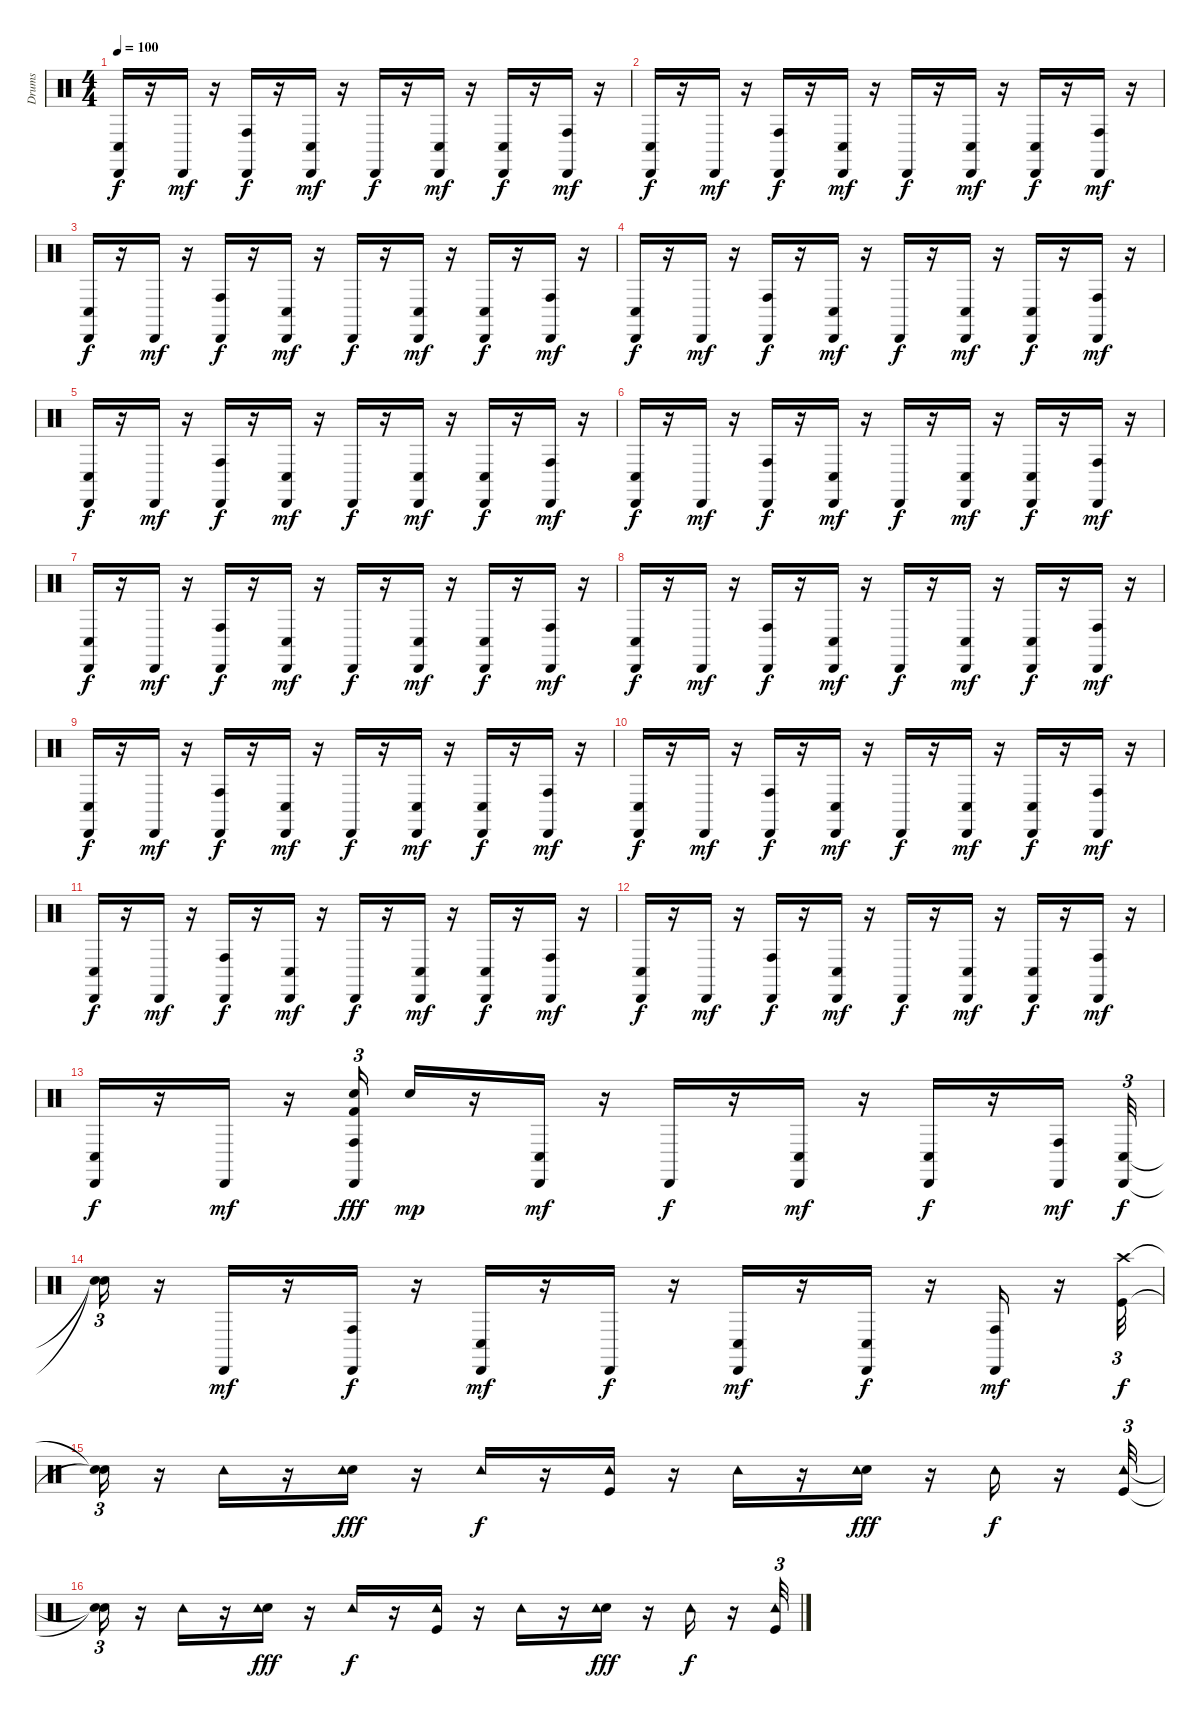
\track ("Drums" "Drums") {instrument percussion}
\staff {score}
\articulation defaults
\ts (4 4)
\tempo 100
\clef neutral
\ks c
("Conga low (hit)" "Cabasa (hit)").16{dy f} r.16 "Cabasa (hit)".16{dy mf} r.16 ("Conga high (hit)" "Cabasa (hit)").16{dy f} r.16 ("Conga low (hit)" "Cabasa (hit)").16{dy mf} r.16 "Cabasa (hit)".16{dy f} r.16 ("Conga low (hit)" "Cabasa (hit)").16{dy mf} r.16 ("Conga low (hit)" "Cabasa (hit)").16{dy f} r.16 ("Conga high (hit)" "Cabasa (hit)").16{dy mf} r.16 |
("Conga low (hit)" "Cabasa (hit)").16{dy f} r.16 "Cabasa (hit)".16{dy mf} r.16 ("Conga high (hit)" "Cabasa (hit)").16{dy f} r.16 ("Conga low (hit)" "Cabasa (hit)").16{dy mf} r.16 "Cabasa (hit)".16{dy f} r.16 ("Conga low (hit)" "Cabasa (hit)").16{dy mf} r.16 ("Conga low (hit)" "Cabasa (hit)").16{dy f} r.16 ("Conga high (hit)" "Cabasa (hit)").16{dy mf} r.16 |
("Conga low (hit)" "Cabasa (hit)").16{dy f} r.16 "Cabasa (hit)".16{dy mf} r.16 ("Conga high (hit)" "Cabasa (hit)").16{dy f} r.16 ("Conga low (hit)" "Cabasa (hit)").16{dy mf} r.16 "Cabasa (hit)".16{dy f} r.16 ("Conga low (hit)" "Cabasa (hit)").16{dy mf} r.16 ("Conga low (hit)" "Cabasa (hit)").16{dy f} r.16 ("Conga high (hit)" "Cabasa (hit)").16{dy mf} r.16 |
("Conga low (hit)" "Cabasa (hit)").16{dy f} r.16 "Cabasa (hit)".16{dy mf} r.16 ("Conga high (hit)" "Cabasa (hit)").16{dy f} r.16 ("Conga low (hit)" "Cabasa (hit)").16{dy mf} r.16 "Cabasa (hit)".16{dy f} r.16 ("Conga low (hit)" "Cabasa (hit)").16{dy mf} r.16 ("Conga low (hit)" "Cabasa (hit)").16{dy f} r.16 ("Conga high (hit)" "Cabasa (hit)").16{dy mf} r.16 |
("Conga low (hit)" "Cabasa (hit)").16{dy f} r.16 "Cabasa (hit)".16{dy mf} r.16 ("Conga high (hit)" "Cabasa (hit)").16{dy f} r.16 ("Conga low (hit)" "Cabasa (hit)").16{dy mf} r.16 "Cabasa (hit)".16{dy f} r.16 ("Conga low (hit)" "Cabasa (hit)").16{dy mf} r.16 ("Conga low (hit)" "Cabasa (hit)").16{dy f} r.16 ("Conga high (hit)" "Cabasa (hit)").16{dy mf} r.16 |
("Conga low (hit)" "Cabasa (hit)").16{dy f} r.16 "Cabasa (hit)".16{dy mf} r.16 ("Conga high (hit)" "Cabasa (hit)").16{dy f} r.16 ("Conga low (hit)" "Cabasa (hit)").16{dy mf} r.16 "Cabasa (hit)".16{dy f} r.16 ("Conga low (hit)" "Cabasa (hit)").16{dy mf} r.16 ("Conga low (hit)" "Cabasa (hit)").16{dy f} r.16 ("Conga high (hit)" "Cabasa (hit)").16{dy mf} r.16 |
("Conga low (hit)" "Cabasa (hit)").16{dy f} r.16 "Cabasa (hit)".16{dy mf} r.16 ("Conga high (hit)" "Cabasa (hit)").16{dy f} r.16 ("Conga low (hit)" "Cabasa (hit)").16{dy mf} r.16 "Cabasa (hit)".16{dy f} r.16 ("Conga low (hit)" "Cabasa (hit)").16{dy mf} r.16 ("Conga low (hit)" "Cabasa (hit)").16{dy f} r.16 ("Conga high (hit)" "Cabasa (hit)").16{dy mf} r.16 |
("Conga low (hit)" "Cabasa (hit)").16{dy f} r.16 "Cabasa (hit)".16{dy mf} r.16 ("Conga high (hit)" "Cabasa (hit)").16{dy f} r.16 ("Conga low (hit)" "Cabasa (hit)").16{dy mf} r.16 "Cabasa (hit)".16{dy f} r.16 ("Conga low (hit)" "Cabasa (hit)").16{dy mf} r.16 ("Conga low (hit)" "Cabasa (hit)").16{dy f} r.16 ("Conga high (hit)" "Cabasa (hit)").16{dy mf} r.16 |
("Conga low (hit)" "Cabasa (hit)").16{dy f} r.16 "Cabasa (hit)".16{dy mf} r.16 ("Conga high (hit)" "Cabasa (hit)").16{dy f} r.16 ("Conga low (hit)" "Cabasa (hit)").16{dy mf} r.16 "Cabasa (hit)".16{dy f} r.16 ("Conga low (hit)" "Cabasa (hit)").16{dy mf} r.16 ("Conga low (hit)" "Cabasa (hit)").16{dy f} r.16 ("Conga high (hit)" "Cabasa (hit)").16{dy mf} r.16 |
("Conga low (hit)" "Cabasa (hit)").16{dy f} r.16 "Cabasa (hit)".16{dy mf} r.16 ("Conga high (hit)" "Cabasa (hit)").16{dy f} r.16 ("Conga low (hit)" "Cabasa (hit)").16{dy mf} r.16 "Cabasa (hit)".16{dy f} r.16 ("Conga low (hit)" "Cabasa (hit)").16{dy mf} r.16 ("Conga low (hit)" "Cabasa (hit)").16{dy f} r.16 ("Conga high (hit)" "Cabasa (hit)").16{dy mf} r.16 |
("Conga low (hit)" "Cabasa (hit)").16{dy f} r.16 "Cabasa (hit)".16{dy mf} r.16 ("Conga high (hit)" "Cabasa (hit)").16{dy f} r.16 ("Conga low (hit)" "Cabasa (hit)").16{dy mf} r.16 "Cabasa (hit)".16{dy f} r.16 ("Conga low (hit)" "Cabasa (hit)").16{dy mf} r.16 ("Conga low (hit)" "Cabasa (hit)").16{dy f} r.16 ("Conga high (hit)" "Cabasa (hit)").16{dy mf} r.16 |
("Conga low (hit)" "Cabasa (hit)").16{dy f} r.16 "Cabasa (hit)".16{dy mf} r.16 ("Conga high (hit)" "Cabasa (hit)").16{dy f} r.16 ("Conga low (hit)" "Cabasa (hit)").16{dy mf} r.16 "Cabasa (hit)".16{dy f} r.16 ("Conga low (hit)" "Cabasa (hit)").16{dy mf} r.16 ("Conga low (hit)" "Cabasa (hit)").16{dy f} r.16 ("Conga high (hit)" "Cabasa (hit)").16{dy mf} r.16 |
("Conga low (hit)" "Cabasa (hit)").16{dy f} r.16 "Cabasa (hit)".16{dy mf} r.16 ("Kick (hit) 2" "Snare (hit) 2" "Conga high (hit)" "Cabasa (hit)").16{tu (3 2) dy fff} "Snare (hit) 2".16{dy mp} r.16 ("Conga low (hit)" "Cabasa (hit)").16{dy mf} r.16 "Cabasa (hit)".16{dy f} r.16 ("Conga low (hit)" "Cabasa (hit)").16{dy mf} r.16 ("Conga low (hit)" "Cabasa (hit)").16{dy f} r.16 ("Conga high (hit)" "Cabasa (hit)").16{dy mf} ("Conga low (hit)" "Cabasa (hit)").32{tu (3 2) dy f} |
("Snare (hit)"{t} "Snare (hit)"{t}).16{tu (3 2)} r.16 "Cabasa (hit)".16{dy mf} r.16 ("Conga high (hit)" "Cabasa (hit)").16{dy f} r.16 ("Conga low (hit)" "Cabasa (hit)").16{dy mf} r.16 "Cabasa (hit)".16{dy f} r.16 ("Conga low (hit)" "Cabasa (hit)").16{dy mf} r.16 ("Conga low (hit)" "Cabasa (hit)").16{dy f} r.16 ("Conga high (hit)" "Cabasa (hit)").16{dy mf} r.16 ("Kick (hit)" "Crash high (hit)").32{tu (3 2) dy f} |
("Snare (hit)"{t} "Snare (hit)"{t}).16{tu (3 2)} r.16 "Tambourine (hit)".16 r.16 ("Snare (hit) 2" "Tambourine (hit)").16{dy fff} r.16 "Tambourine (hit)".16{dy f} r.16 ("Kick (hit)" "Tambourine (hit)").16 r.16 "Tambourine (hit)".16 r.16 ("Snare (hit) 2" "Tambourine (hit)").16{dy fff} r.16 "Tambourine (hit)".16{dy f} r.16 ("Kick (hit)" "Tambourine (hit)").32{tu (3 2)} |
("Snare (hit)"{t} "Snare (hit)"{t}).16{tu (3 2)} r.16 "Tambourine (hit)".16 r.16 ("Snare (hit) 2" "Tambourine (hit)").16{dy fff} r.16 "Tambourine (hit)".16{dy f} r.16 ("Kick (hit)" "Tambourine (hit)").16 r.16 "Tambourine (hit)".16 r.16 ("Snare (hit) 2" "Tambourine (hit)").16{dy fff} r.16 "Tambourine (hit)".16{dy f} r.16 ("Kick (hit)" "Tambourine (hit)").32{tu (3 2)}
